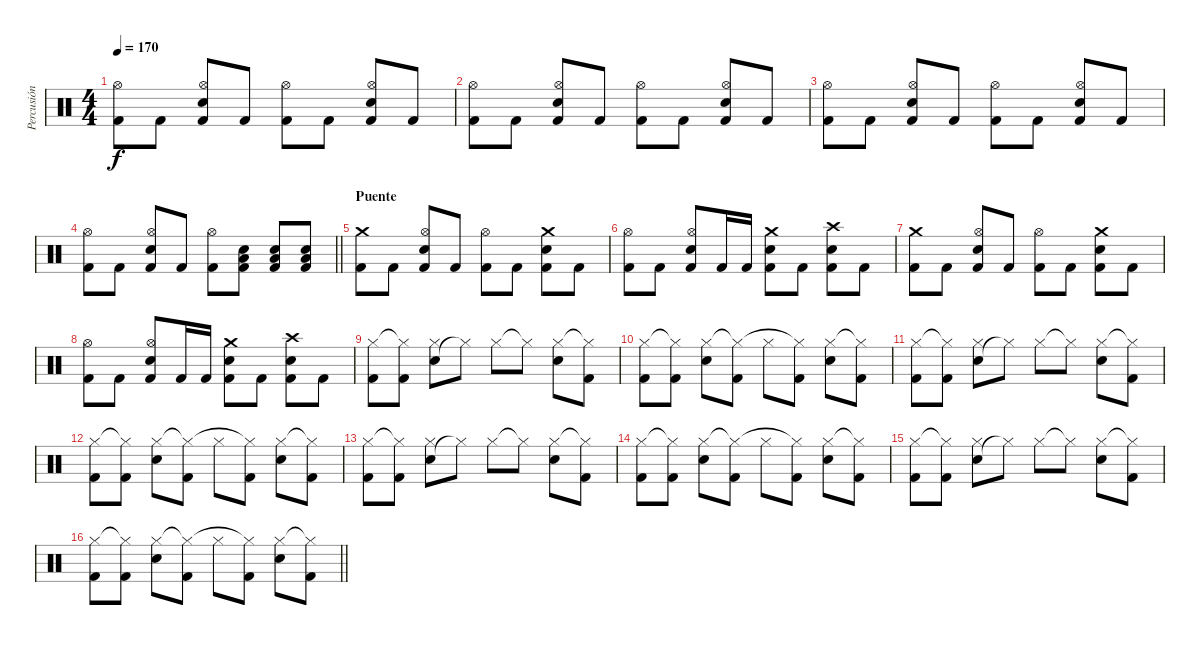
\track ("Percusión" "Percusión") {instrument percussion}
\staff {score}
\articulation defaults
\ts (4 4)
\tempo 170
\clef neutral
\ks c
("Kick (hit) 2" "Hi-Hat (open)").8{dy f} "Kick (hit) 2".8 ("Kick (hit) 2" "Snare (hit) 2" "Hi-Hat (open)").8 "Kick (hit) 2".8 ("Kick (hit) 2" "Hi-Hat (open)").8 "Kick (hit) 2".8 ("Kick (hit) 2" "Snare (hit) 2" "Hi-Hat (open)").8 "Kick (hit) 2".8 |
("Kick (hit) 2" "Hi-Hat (open)").8 "Kick (hit) 2".8 ("Kick (hit) 2" "Snare (hit) 2" "Hi-Hat (open)").8 "Kick (hit) 2".8 ("Kick (hit) 2" "Hi-Hat (open)").8 "Kick (hit) 2".8 ("Kick (hit) 2" "Snare (hit) 2" "Hi-Hat (open)").8 "Kick (hit) 2".8 |
("Kick (hit) 2" "Hi-Hat (open)").8 "Kick (hit) 2".8 ("Kick (hit) 2" "Snare (hit) 2" "Hi-Hat (open)").8 "Kick (hit) 2".8 ("Kick (hit) 2" "Hi-Hat (open)").8 "Kick (hit) 2".8 ("Kick (hit) 2" "Snare (hit) 2" "Hi-Hat (open)").8 "Kick (hit) 2".8 |
\barLineRight lightlight
("Kick (hit) 2" "Hi-Hat (open)").8 "Kick (hit) 2".8 ("Kick (hit) 2" "Snare (hit) 2" "Hi-Hat (open)").8 "Kick (hit) 2".8 ("Kick (hit) 2" "Hi-Hat (open)").8 ("Kick (hit) 2" "Snare (hit) 2" "Low Floor Tom (hit)").8 ("Kick (hit) 2" "Snare (hit) 2" "Low Floor Tom (hit)").8 ("Kick (hit) 2" "Snare (hit) 2" "Low Floor Tom (hit)").8 |
\section ("" "Puente")
("Kick (hit) 2" "Crash medium (hit)").8 "Kick (hit) 2".8 ("Kick (hit) 2" "Snare (hit) 2" "Hi-Hat (open)").8 "Kick (hit) 2".8 ("Kick (hit) 2" "Hi-Hat (open)").8 "Kick (hit) 2".8 ("Kick (hit) 2" "Snare (hit) 2" "Crash medium (hit)").8 "Kick (hit) 2".8 |
("Kick (hit) 2" "Hi-Hat (open)").8 "Kick (hit) 2".8 ("Kick (hit) 2" "Snare (hit) 2" "Hi-Hat (open)").8 "Kick (hit) 2".16 "Kick (hit) 2".16 ("Kick (hit) 2" "Snare (hit) 2" "Crash medium (hit)").8 "Kick (hit) 2".8 ("Kick (hit) 2" "Snare (hit) 2" "Crash high (hit)").8 "Kick (hit) 2".8 |
("Kick (hit) 2" "Crash medium (hit)").8 "Kick (hit) 2".8 ("Kick (hit) 2" "Snare (hit) 2" "Hi-Hat (open)").8 "Kick (hit) 2".8 ("Kick (hit) 2" "Hi-Hat (open)").8 "Kick (hit) 2".8 ("Kick (hit) 2" "Snare (hit) 2" "Crash medium (hit)").8 "Kick (hit) 2".8 |
("Kick (hit) 2" "Hi-Hat (open)").8 "Kick (hit) 2".8 ("Kick (hit) 2" "Snare (hit) 2" "Hi-Hat (open)").8 "Kick (hit) 2".16 "Kick (hit) 2".16 ("Kick (hit) 2" "Snare (hit) 2" "Crash medium (hit)").8 "Kick (hit) 2".8 ("Kick (hit) 2" "Snare (hit) 2" "Crash high (hit)").8 "Kick (hit) 2".8 |
("Kick (hit) 2" "Hi-Hat (closed)").8 ("Kick (hit) 2" "Hi-Hat (closed)"{t}).8 ("Snare (hit) 2" "Hi-Hat (closed)").8 "Hi-Hat (closed)"{t}.8 "Hi-Hat (closed)".8 "Hi-Hat (closed)"{t}.8 ("Snare (hit) 2" "Hi-Hat (closed)").8 ("Kick (hit) 2" "Hi-Hat (closed)"{t}).8 |
("Kick (hit) 2" "Hi-Hat (closed)").8 ("Kick (hit) 2" "Hi-Hat (closed)"{t}).8 ("Snare (hit) 2" "Hi-Hat (closed)").8 ("Kick (hit) 2" "Hi-Hat (closed)"{t}).8 "Hi-Hat (closed)".8 ("Kick (hit) 2" "Hi-Hat (closed)"{t}).8 ("Snare (hit) 2" "Hi-Hat (closed)").8 ("Kick (hit) 2" "Hi-Hat (closed)"{t}).8 |
("Kick (hit) 2" "Hi-Hat (closed)").8 ("Kick (hit) 2" "Hi-Hat (closed)"{t}).8 ("Snare (hit) 2" "Hi-Hat (closed)").8 "Hi-Hat (closed)"{t}.8 "Hi-Hat (closed)".8 "Hi-Hat (closed)"{t}.8 ("Snare (hit) 2" "Hi-Hat (closed)").8 ("Kick (hit) 2" "Hi-Hat (closed)"{t}).8 |
("Kick (hit) 2" "Hi-Hat (closed)").8 ("Kick (hit) 2" "Hi-Hat (closed)"{t}).8 ("Snare (hit) 2" "Hi-Hat (closed)").8 ("Kick (hit) 2" "Hi-Hat (closed)"{t}).8 "Hi-Hat (closed)".8 ("Kick (hit) 2" "Hi-Hat (closed)"{t}).8 ("Snare (hit) 2" "Hi-Hat (closed)").8 ("Kick (hit) 2" "Hi-Hat (closed)"{t}).8 |
("Kick (hit) 2" "Hi-Hat (closed)").8 ("Kick (hit) 2" "Hi-Hat (closed)"{t}).8 ("Snare (hit) 2" "Hi-Hat (closed)").8 "Hi-Hat (closed)"{t}.8 "Hi-Hat (closed)".8 "Hi-Hat (closed)"{t}.8 ("Snare (hit) 2" "Hi-Hat (closed)").8 ("Kick (hit) 2" "Hi-Hat (closed)"{t}).8 |
("Kick (hit) 2" "Hi-Hat (closed)").8 ("Kick (hit) 2" "Hi-Hat (closed)"{t}).8 ("Snare (hit) 2" "Hi-Hat (closed)").8 ("Kick (hit) 2" "Hi-Hat (closed)"{t}).8 "Hi-Hat (closed)".8 ("Kick (hit) 2" "Hi-Hat (closed)"{t}).8 ("Snare (hit) 2" "Hi-Hat (closed)").8 ("Kick (hit) 2" "Hi-Hat (closed)"{t}).8 |
("Kick (hit) 2" "Hi-Hat (closed)").8 ("Kick (hit) 2" "Hi-Hat (closed)"{t}).8 ("Snare (hit) 2" "Hi-Hat (closed)").8 "Hi-Hat (closed)"{t}.8 "Hi-Hat (closed)".8 "Hi-Hat (closed)"{t}.8 ("Snare (hit) 2" "Hi-Hat (closed)").8 ("Kick (hit) 2" "Hi-Hat (closed)"{t}).8 |
\barLineRight lightlight
("Kick (hit) 2" "Hi-Hat (closed)").8 ("Kick (hit) 2" "Hi-Hat (closed)"{t}).8 ("Snare (hit) 2" "Hi-Hat (closed)").8 ("Kick (hit) 2" "Hi-Hat (closed)"{t}).8 "Hi-Hat (closed)".8 ("Kick (hit) 2" "Hi-Hat (closed)"{t}).8 ("Snare (hit) 2" "Hi-Hat (closed)").8 ("Kick (hit) 2" "Hi-Hat (closed)"{t}).8
